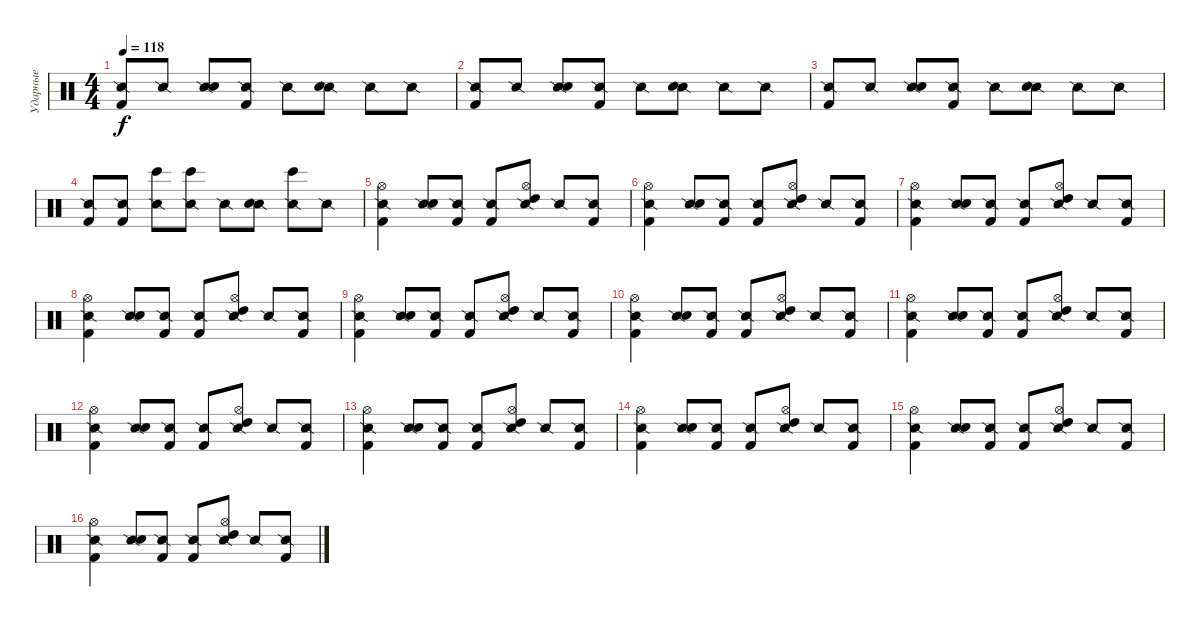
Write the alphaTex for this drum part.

\track ("Ударные" "Ударные") {solo instrument percussion}
\staff {score}
\articulation defaults
\ts (4 4)
\tempo 118
\clef neutral
\ks c
("Snare (side stick) 2" "Kick (hit) 2").8{dy f} "Snare (side stick) 2".8 ("Snare (side stick) 2" "Electric Snare (hit)").8 ("Snare (side stick) 2" "Kick (hit) 2").8 "Snare (side stick) 2".8 ("Snare (side stick) 2" "Electric Snare (hit)").8 "Snare (side stick) 2".8 "Snare (side stick) 2".8 |
("Snare (side stick) 2" "Kick (hit) 2").8 "Snare (side stick) 2".8 ("Snare (side stick) 2" "Electric Snare (hit)").8 ("Snare (side stick) 2" "Kick (hit) 2").8 "Snare (side stick) 2".8 ("Snare (side stick) 2" "Electric Snare (hit)").8 "Snare (side stick) 2".8 "Snare (side stick) 2".8 |
("Snare (side stick) 2" "Kick (hit) 2").8 "Snare (side stick) 2".8 ("Snare (side stick) 2" "Electric Snare (hit)").8 ("Snare (side stick) 2" "Kick (hit) 2").8 "Snare (side stick) 2".8 ("Snare (side stick) 2" "Electric Snare (hit)").8 "Snare (side stick) 2".8 "Snare (side stick) 2".8 |
("Snare (side stick) 2" "Kick (hit) 2").8 ("Snare (side stick) 2" "Kick (hit) 2").8 ("Snare (side stick) 2" "Bongo High (hit)").8 ("Snare (side stick) 2" "Bongo High (hit)").8 "Snare (side stick) 2".8 ("Snare (side stick) 2" "Electric Snare (hit)").8 ("Snare (side stick) 2" "Bongo High (hit)").8 "Snare (side stick) 2".8 |
("Hi-Hat (open)" "Snare (side stick) 2" "Kick (hit) 2").4 ("Snare (side stick) 2" "Electric Snare (hit)").8 ("Snare (side stick) 2" "Kick (hit) 2").8 ("Snare (side stick) 2" "Kick (hit) 2").8 ("Hi-Hat (open)" "Snare (side stick) 2" "High Tom (hit)").8 "Snare (side stick) 2".8 ("Snare (side stick) 2" "Kick (hit) 2").8 |
("Hi-Hat (open)" "Snare (side stick) 2" "Kick (hit) 2").4 ("Snare (side stick) 2" "Electric Snare (hit)").8 ("Snare (side stick) 2" "Kick (hit) 2").8 ("Snare (side stick) 2" "Kick (hit) 2").8 ("Hi-Hat (open)" "Snare (side stick) 2" "High Tom (hit)").8 "Snare (side stick) 2".8 ("Snare (side stick) 2" "Kick (hit) 2").8 |
("Hi-Hat (open)" "Snare (side stick) 2" "Kick (hit) 2").4 ("Snare (side stick) 2" "Electric Snare (hit)").8 ("Snare (side stick) 2" "Kick (hit) 2").8 ("Snare (side stick) 2" "Kick (hit) 2").8 ("Hi-Hat (open)" "Snare (side stick) 2" "High Tom (hit)").8 "Snare (side stick) 2".8 ("Snare (side stick) 2" "Kick (hit) 2").8 |
("Hi-Hat (open)" "Snare (side stick) 2" "Kick (hit) 2").4 ("Snare (side stick) 2" "Electric Snare (hit)").8 ("Snare (side stick) 2" "Kick (hit) 2").8 ("Snare (side stick) 2" "Kick (hit) 2").8 ("Hi-Hat (open)" "Snare (side stick) 2" "High Tom (hit)").8 "Snare (side stick) 2".8 ("Snare (side stick) 2" "Kick (hit) 2").8 |
("Hi-Hat (open)" "Snare (side stick) 2" "Kick (hit) 2").4 ("Snare (side stick) 2" "Electric Snare (hit)").8 ("Snare (side stick) 2" "Kick (hit) 2").8 ("Snare (side stick) 2" "Kick (hit) 2").8 ("Hi-Hat (open)" "Snare (side stick) 2" "High Tom (hit)").8 "Snare (side stick) 2".8 ("Snare (side stick) 2" "Kick (hit) 2").8 |
("Hi-Hat (open)" "Snare (side stick) 2" "Kick (hit) 2").4 ("Snare (side stick) 2" "Electric Snare (hit)").8 ("Snare (side stick) 2" "Kick (hit) 2").8 ("Snare (side stick) 2" "Kick (hit) 2").8 ("Hi-Hat (open)" "Snare (side stick) 2" "High Tom (hit)").8 "Snare (side stick) 2".8 ("Snare (side stick) 2" "Kick (hit) 2").8 |
("Hi-Hat (open)" "Snare (side stick) 2" "Kick (hit) 2").4 ("Snare (side stick) 2" "Electric Snare (hit)").8 ("Snare (side stick) 2" "Kick (hit) 2").8 ("Snare (side stick) 2" "Kick (hit) 2").8 ("Hi-Hat (open)" "Snare (side stick) 2" "High Tom (hit)").8 "Snare (side stick) 2".8 ("Snare (side stick) 2" "Kick (hit) 2").8 |
("Hi-Hat (open)" "Snare (side stick) 2" "Kick (hit) 2").4 ("Snare (side stick) 2" "Electric Snare (hit)").8 ("Snare (side stick) 2" "Kick (hit) 2").8 ("Snare (side stick) 2" "Kick (hit) 2").8 ("Hi-Hat (open)" "Snare (side stick) 2" "High Tom (hit)").8 "Snare (side stick) 2".8 ("Snare (side stick) 2" "Kick (hit) 2").8 |
("Hi-Hat (open)" "Snare (side stick) 2" "Kick (hit) 2").4 ("Snare (side stick) 2" "Electric Snare (hit)").8 ("Snare (side stick) 2" "Kick (hit) 2").8 ("Snare (side stick) 2" "Kick (hit) 2").8 ("Hi-Hat (open)" "Snare (side stick) 2" "High Tom (hit)").8 "Snare (side stick) 2".8 ("Snare (side stick) 2" "Kick (hit) 2").8 |
("Hi-Hat (open)" "Snare (side stick) 2" "Kick (hit) 2").4 ("Snare (side stick) 2" "Electric Snare (hit)").8 ("Snare (side stick) 2" "Kick (hit) 2").8 ("Snare (side stick) 2" "Kick (hit) 2").8 ("Hi-Hat (open)" "Snare (side stick) 2" "High Tom (hit)").8 "Snare (side stick) 2".8 ("Snare (side stick) 2" "Kick (hit) 2").8 |
("Hi-Hat (open)" "Snare (side stick) 2" "Kick (hit) 2").4 ("Snare (side stick) 2" "Electric Snare (hit)").8 ("Snare (side stick) 2" "Kick (hit) 2").8 ("Snare (side stick) 2" "Kick (hit) 2").8 ("Hi-Hat (open)" "Snare (side stick) 2" "High Tom (hit)").8 "Snare (side stick) 2".8 ("Snare (side stick) 2" "Kick (hit) 2").8 |
("Hi-Hat (open)" "Snare (side stick) 2" "Kick (hit) 2").4 ("Snare (side stick) 2" "Electric Snare (hit)").8 ("Snare (side stick) 2" "Kick (hit) 2").8 ("Snare (side stick) 2" "Kick (hit) 2").8 ("Hi-Hat (open)" "Snare (side stick) 2" "High Tom (hit)").8 "Snare (side stick) 2".8 ("Snare (side stick) 2" "Kick (hit) 2").8
